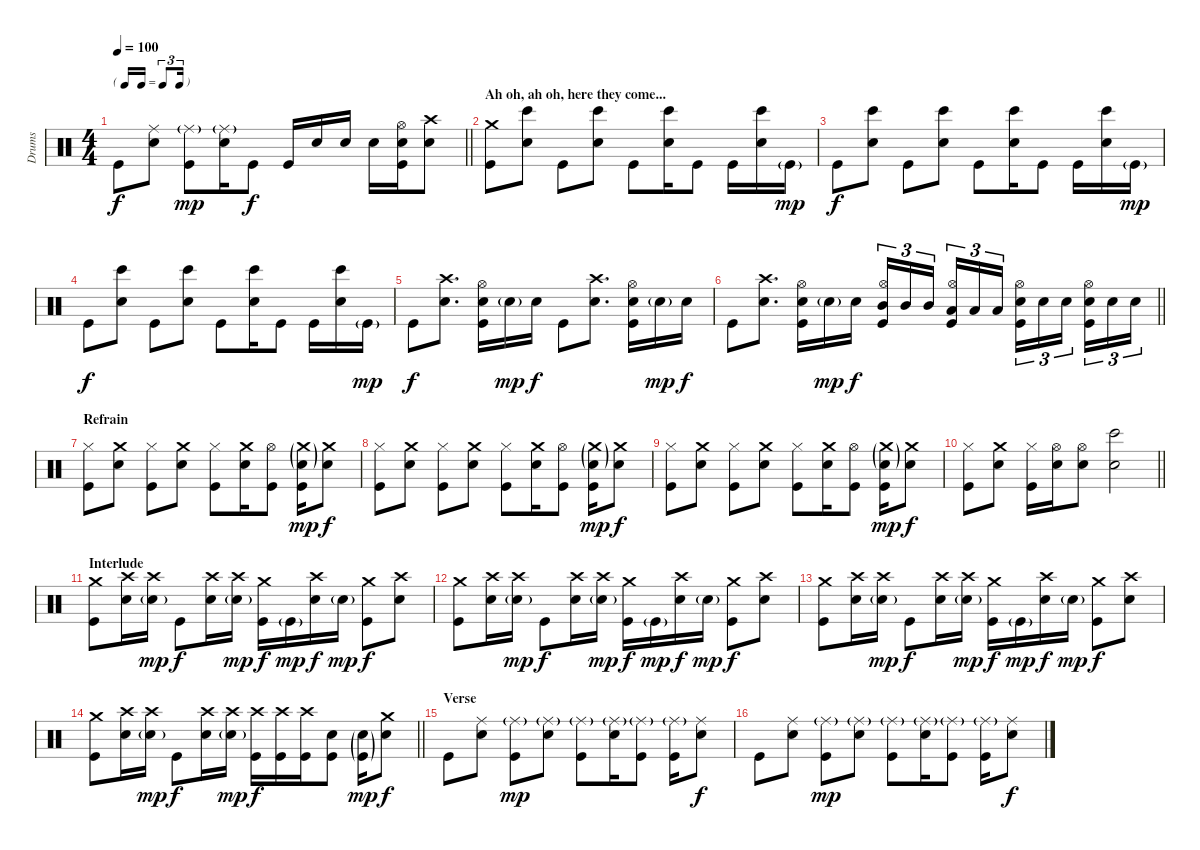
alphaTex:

\track ("Drums" "Drums") {instrument percussion}
\staff {score}
\articulation defaults
\ts (4 4)
\tf triplet16th
\tempo 100
\clef neutral
\barLineRight lightlight
\ks c "Kick (hit)".8{dy f}
("Ride (middle)" "Electric Snare (hit)").8 ("Ride (middle)"{g} "Kick (hit)").8{dy mp} ("Ride (middle)"{g} "Electric Snare (hit)").16 "Kick (hit)".8{dy f} "Kick (hit)".16 "Electric Snare (hit)".16 "Electric Snare (hit)".16 "Electric Snare (hit)".16 ("Hi-Hat (open)" "Electric Snare (hit)" "Kick (hit)").16 ("Crash high (hit)" "Electric Snare (hit)").8 |
\section ("" "Ah oh, ah oh, here they come...")
("Crash medium (hit)" "Kick (hit)").8 ("Bongo High (hit)" "Hand Clap (hit)").8 "Kick (hit)".8 ("Bongo High (hit)" "Hand Clap (hit)").8 "Kick (hit)".8 ("Bongo High (hit)" "Hand Clap (hit)").16 "Kick (hit)".8 "Kick (hit)".16 ("Bongo High (hit)" "Hand Clap (hit)").16 "Kick (hit)"{g}.16{dy mp} |
"Kick (hit)".8{dy f} ("Bongo High (hit)" "Hand Clap (hit)").8 "Kick (hit)".8 ("Bongo High (hit)" "Hand Clap (hit)").8 "Kick (hit)".8 ("Bongo High (hit)" "Hand Clap (hit)").16 "Kick (hit)".8 "Kick (hit)".16 ("Bongo High (hit)" "Hand Clap (hit)").16 "Kick (hit)"{g}.16{dy mp} |
"Kick (hit)".8{dy f} ("Bongo High (hit)" "Hand Clap (hit)").8 "Kick (hit)".8 ("Bongo High (hit)" "Hand Clap (hit)").8 "Kick (hit)".8 ("Bongo High (hit)" "Hand Clap (hit)").16 "Kick (hit)".8 "Kick (hit)".16 ("Bongo High (hit)" "Hand Clap (hit)").16 "Kick (hit)"{g}.16{dy mp} |
"Kick (hit)".8{dy f} ("Crash high (hit)" "Electric Snare (hit)").8{d} ("Hi-Hat (open)" "Electric Snare (hit)" "Kick (hit)").16 "Electric Snare (hit)"{g}.16{dy mp} "Electric Snare (hit)".16{dy f} "Kick (hit)".8 ("Crash high (hit)" "Electric Snare (hit)").8{d} ("Hi-Hat (open)" "Electric Snare (hit)" "Kick (hit)").16 "Electric Snare (hit)"{g}.16{dy mp} "Electric Snare (hit)".16{dy f} |
\barLineRight lightlight "Kick (hit)".8
("Crash high (hit)" "Electric Snare (hit)").8{d} ("Hi-Hat (open)" "Electric Snare (hit)" "Kick (hit)").16 "Electric Snare (hit)"{g}.16{dy mp} "Electric Snare (hit)".16{dy f} ("Hi-Hat (open)" "Mid Tom (hit)" "Kick (hit)").16{tu (3 2)} "Mid Tom (hit)".16{tu (3 2)} "Mid Tom (hit)".16{tu (3 2) beam splitsecondary} ("Hi-Hat (open)" "Low Tom (hit)" "Kick (hit)").16{tu (3 2)} "Low Tom (hit)".16{tu (3 2)} "Low Tom (hit)".16{tu (3 2)} ("Hi-Hat (open)" "Electric Snare (hit)" "Kick (hit)").16{tu (3 2)} "Electric Snare (hit)".16{tu (3 2)} "Electric Snare (hit)".16{tu (3 2) beam splitsecondary} ("Hi-Hat (open)" "Electric Snare (hit)" "Kick (hit)").16{tu (3 2)} "Electric Snare (hit)".16{tu (3 2)} "Electric Snare (hit)".16{tu (3 2)} |
\section ("" "Refrain")
("Hi-Hat (closed)" "Kick (hit)").8 ("Crash medium (hit)" "Electric Snare (hit)").8 ("Hi-Hat (closed)" "Kick (hit)").8 ("Crash medium (hit)" "Electric Snare (hit)").8 ("Hi-Hat (closed)" "Kick (hit)").8 ("Crash medium (hit)" "Electric Snare (hit)").16 ("Hi-Hat (open)" "Kick (hit)").8 ("Crash medium (hit)"{g} "Electric Snare (hit)"{g} "Kick (hit)").16{dy mp} ("Crash medium (hit)" "Electric Snare (hit)").8{dy f} |
("Hi-Hat (closed)" "Kick (hit)").8 ("Crash medium (hit)" "Electric Snare (hit)").8 ("Hi-Hat (closed)" "Kick (hit)").8 ("Crash medium (hit)" "Electric Snare (hit)").8 ("Hi-Hat (closed)" "Kick (hit)").8 ("Crash medium (hit)" "Electric Snare (hit)").16 ("Hi-Hat (open)" "Kick (hit)").8 ("Crash medium (hit)"{g} "Electric Snare (hit)"{g} "Kick (hit)").16{dy mp} ("Crash medium (hit)" "Electric Snare (hit)").8{dy f} |
("Hi-Hat (closed)" "Kick (hit)").8 ("Crash medium (hit)" "Electric Snare (hit)").8 ("Hi-Hat (closed)" "Kick (hit)").8 ("Crash medium (hit)" "Electric Snare (hit)").8 ("Hi-Hat (closed)" "Kick (hit)").8 ("Crash medium (hit)" "Electric Snare (hit)").16 ("Hi-Hat (open)" "Kick (hit)").8 ("Crash medium (hit)"{g} "Electric Snare (hit)"{g} "Kick (hit)").16{dy mp} ("Crash medium (hit)" "Electric Snare (hit)").8{dy f} |
\barLineRight lightlight
("Hi-Hat (closed)" "Kick (hit)").8 ("Crash medium (hit)" "Electric Snare (hit)").8 ("Hi-Hat (closed)" "Kick (hit)").16 ("Hi-Hat (open)" "Electric Snare (hit)").16 ("Hi-Hat (open)" "Electric Snare (hit)").8 ("Bongo High (hit)" "Hand Clap (hit)").2 |
\section ("" "Interlude")
("Crash medium (hit)" "Kick (hit)").8 ("Crash high (hit)" "Electric Snare (hit)").16 ("Crash high (hit)" "Electric Snare (hit)"{g}).16{dy mp} "Kick (hit)".8{dy f} ("Crash high (hit)" "Electric Snare (hit)").16 ("Crash high (hit)" "Electric Snare (hit)"{g}).16{dy mp} ("Crash medium (hit)" "Kick (hit)").16{dy f} "Kick (hit)"{g}.16{dy mp} ("Crash high (hit)" "Electric Snare (hit)").16{dy f} "Electric Snare (hit)"{g}.16{dy mp} ("Crash medium (hit)" "Kick (hit)").8{dy f} ("Crash high (hit)" "Electric Snare (hit)").8 |
("Crash medium (hit)" "Kick (hit)").8 ("Crash high (hit)" "Electric Snare (hit)").16 ("Crash high (hit)" "Electric Snare (hit)"{g}).16{dy mp} "Kick (hit)".8{dy f} ("Crash high (hit)" "Electric Snare (hit)").16 ("Crash high (hit)" "Electric Snare (hit)"{g}).16{dy mp} ("Crash medium (hit)" "Kick (hit)").16{dy f} "Kick (hit)"{g}.16{dy mp} ("Crash high (hit)" "Electric Snare (hit)").16{dy f} "Electric Snare (hit)"{g}.16{dy mp} ("Crash medium (hit)" "Kick (hit)").8{dy f} ("Crash high (hit)" "Electric Snare (hit)").8 |
("Crash medium (hit)" "Kick (hit)").8 ("Crash high (hit)" "Electric Snare (hit)").16 ("Crash high (hit)" "Electric Snare (hit)"{g}).16{dy mp} "Kick (hit)".8{dy f} ("Crash high (hit)" "Electric Snare (hit)").16 ("Crash high (hit)" "Electric Snare (hit)"{g}).16{dy mp} ("Crash medium (hit)" "Kick (hit)").16{dy f} "Kick (hit)"{g}.16{dy mp} ("Crash high (hit)" "Electric Snare (hit)").16{dy f} "Electric Snare (hit)"{g}.16{dy mp} ("Crash medium (hit)" "Kick (hit)").8{dy f} ("Crash high (hit)" "Electric Snare (hit)").8 |
\barLineRight lightlight
("Crash medium (hit)" "Kick (hit)").8 ("Crash high (hit)" "Electric Snare (hit)").16 ("Crash high (hit)" "Electric Snare (hit)"{g}).16{dy mp} "Kick (hit)".8{dy f} ("Crash high (hit)" "Electric Snare (hit)").16 ("Crash high (hit)" "Electric Snare (hit)"{g}).16{dy mp} ("Crash high (hit)" "Kick (hit)").16{dy f} ("Crash high (hit)" "Kick (hit)").16 ("Crash high (hit)" "Kick (hit)").16 ("Electric Snare (hit)" "Kick (hit)").8 ("Electric Snare (hit)"{g} "Kick (hit)"{g}).16{dy mp} ("Crash medium (hit)" "Electric Snare (hit)").8{dy f} |
\section ("" "Verse")
"Kick (hit)".8 ("Ride (middle)" "Electric Snare (hit)").8 ("Ride (middle)"{g} "Kick (hit)").8{dy mp} ("Ride (middle)"{g} "Electric Snare (hit)").8 ("Ride (middle)"{g} "Kick (hit)").8 ("Ride (middle)"{g} "Electric Snare (hit)").16 ("Ride (middle)"{g} "Kick (hit)").8 ("Ride (middle)"{g} "Kick (hit)").16 ("Ride (middle)" "Electric Snare (hit)").8{dy f} |
"Kick (hit)".8 ("Ride (middle)" "Electric Snare (hit)").8 ("Ride (middle)"{g} "Kick (hit)").8{dy mp} ("Ride (middle)"{g} "Electric Snare (hit)").8 ("Ride (middle)"{g} "Kick (hit)").8 ("Ride (middle)"{g} "Electric Snare (hit)").16 ("Ride (middle)"{g} "Kick (hit)").8 ("Ride (middle)"{g} "Kick (hit)").16 ("Ride (middle)" "Electric Snare (hit)").8{dy f}
